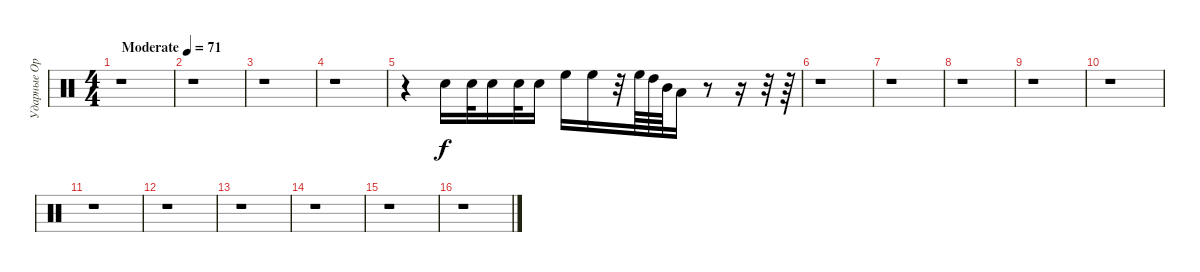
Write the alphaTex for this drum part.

\track ("Ударные Open" "Ударные Op") {instrument percussion}
\staff {score}
\articulation defaults
\ts (4 4)
\tempo (71 "Moderate")
\clef neutral
\ks c
r.1{dy f} |
r.1 |
r.1 |
r.1 |
r.4 "Snare (hit) 2".16 "Snare (hit) 2".32 "Snare (hit) 2".16 "Snare (hit) 2".32 "Snare (hit) 2".16 "High Floor Tom (hit)".16 "High Floor Tom (hit)".16 r.32 "High Floor Tom (hit)".64 "High Tom (hit)".64 "Mid Tom (hit)".64 "Low Tom (hit)".16 r.8 r.16 r.32 r.64 |
r.1 |
r.1 |
r.1 |
r.1 |
r.1 |
r.1 |
r.1 |
r.1 |
r.1 |
r.1 |
r.1
